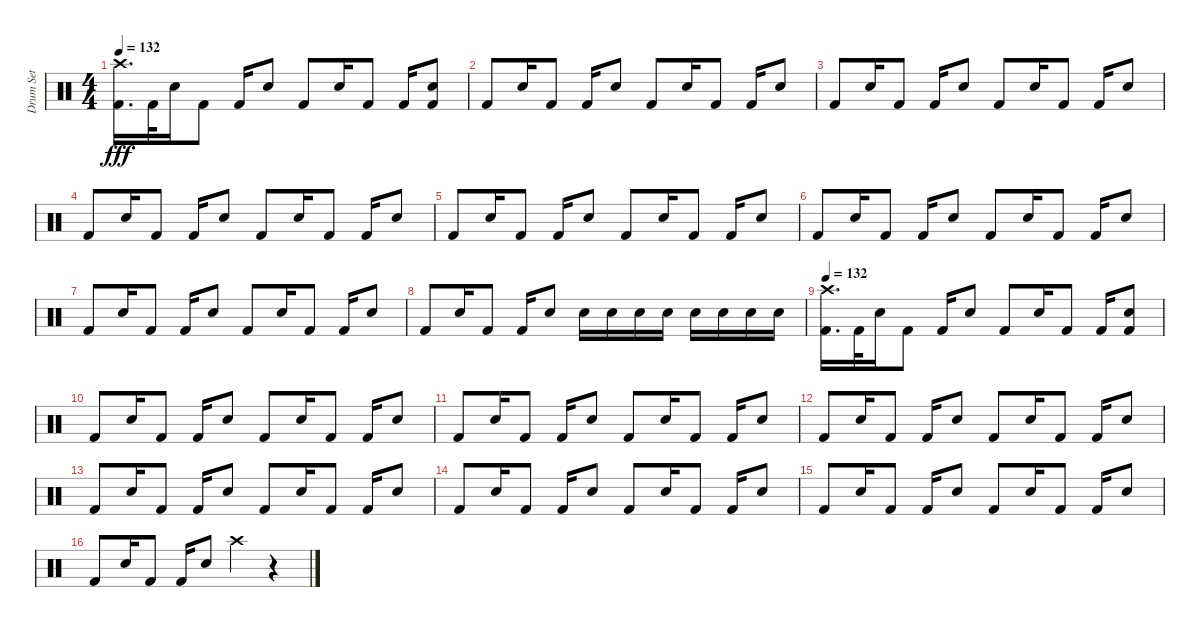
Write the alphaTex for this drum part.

\track ("Drum Set" "Drum Set") {instrument percussion}
\staff {score}
\articulation defaults
\ts (4 4)
\tempo 132
\clef neutral
\ks c
("Crash high (hit)" "Kick (hit) 2").16{d dy fff} "Kick (hit) 2".32 "Electric Snare (hit)".16 "Kick (hit) 2".8 "Kick (hit) 2".16 "Electric Snare (hit)".8 "Kick (hit) 2".8 "Electric Snare (hit)".16 "Kick (hit) 2".8 "Kick (hit) 2".16 ("Electric Snare (hit)" "Kick (hit) 2").8 |
"Kick (hit) 2".8 "Electric Snare (hit)".16 "Kick (hit) 2".8 "Kick (hit) 2".16 "Electric Snare (hit)".8 "Kick (hit) 2".8 "Electric Snare (hit)".16 "Kick (hit) 2".8 "Kick (hit) 2".16 "Electric Snare (hit)".8 |
"Kick (hit) 2".8 "Electric Snare (hit)".16 "Kick (hit) 2".8 "Kick (hit) 2".16 "Electric Snare (hit)".8 "Kick (hit) 2".8 "Electric Snare (hit)".16 "Kick (hit) 2".8 "Kick (hit) 2".16 "Electric Snare (hit)".8 |
"Kick (hit) 2".8 "Electric Snare (hit)".16 "Kick (hit) 2".8 "Kick (hit) 2".16 "Electric Snare (hit)".8 "Kick (hit) 2".8 "Electric Snare (hit)".16 "Kick (hit) 2".8 "Kick (hit) 2".16 "Electric Snare (hit)".8 |
"Kick (hit) 2".8 "Electric Snare (hit)".16 "Kick (hit) 2".8 "Kick (hit) 2".16 "Electric Snare (hit)".8 "Kick (hit) 2".8 "Electric Snare (hit)".16 "Kick (hit) 2".8 "Kick (hit) 2".16 "Electric Snare (hit)".8 |
"Kick (hit) 2".8 "Electric Snare (hit)".16 "Kick (hit) 2".8 "Kick (hit) 2".16 "Electric Snare (hit)".8 "Kick (hit) 2".8 "Electric Snare (hit)".16 "Kick (hit) 2".8 "Kick (hit) 2".16 "Electric Snare (hit)".8 |
"Kick (hit) 2".8 "Electric Snare (hit)".16 "Kick (hit) 2".8 "Kick (hit) 2".16 "Electric Snare (hit)".8 "Kick (hit) 2".8 "Electric Snare (hit)".16 "Kick (hit) 2".8 "Kick (hit) 2".16 "Electric Snare (hit)".8 |
"Kick (hit) 2".8 "Electric Snare (hit)".16 "Kick (hit) 2".8 "Kick (hit) 2".16 "Electric Snare (hit)".8 "Electric Snare (hit)".16 "Electric Snare (hit)".16 "Electric Snare (hit)".16 "Electric Snare (hit)".16 "Electric Snare (hit)".16 "Electric Snare (hit)".16 "Electric Snare (hit)".16 "Electric Snare (hit)".16 |
\tempo 132
("Crash high (hit)" "Kick (hit) 2").16{d} "Kick (hit) 2".32 "Electric Snare (hit)".16 "Kick (hit) 2".8 "Kick (hit) 2".16 "Electric Snare (hit)".8 "Kick (hit) 2".8 "Electric Snare (hit)".16 "Kick (hit) 2".8 "Kick (hit) 2".16 ("Electric Snare (hit)" "Kick (hit) 2").8 |
"Kick (hit) 2".8 "Electric Snare (hit)".16 "Kick (hit) 2".8 "Kick (hit) 2".16 "Electric Snare (hit)".8 "Kick (hit) 2".8 "Electric Snare (hit)".16 "Kick (hit) 2".8 "Kick (hit) 2".16 "Electric Snare (hit)".8 |
"Kick (hit) 2".8 "Electric Snare (hit)".16 "Kick (hit) 2".8 "Kick (hit) 2".16 "Electric Snare (hit)".8 "Kick (hit) 2".8 "Electric Snare (hit)".16 "Kick (hit) 2".8 "Kick (hit) 2".16 "Electric Snare (hit)".8 |
"Kick (hit) 2".8 "Electric Snare (hit)".16 "Kick (hit) 2".8 "Kick (hit) 2".16 "Electric Snare (hit)".8 "Kick (hit) 2".8 "Electric Snare (hit)".16 "Kick (hit) 2".8 "Kick (hit) 2".16 "Electric Snare (hit)".8 |
"Kick (hit) 2".8 "Electric Snare (hit)".16 "Kick (hit) 2".8 "Kick (hit) 2".16 "Electric Snare (hit)".8 "Kick (hit) 2".8 "Electric Snare (hit)".16 "Kick (hit) 2".8 "Kick (hit) 2".16 "Electric Snare (hit)".8 |
"Kick (hit) 2".8 "Electric Snare (hit)".16 "Kick (hit) 2".8 "Kick (hit) 2".16 "Electric Snare (hit)".8 "Kick (hit) 2".8 "Electric Snare (hit)".16 "Kick (hit) 2".8 "Kick (hit) 2".16 "Electric Snare (hit)".8 |
"Kick (hit) 2".8 "Electric Snare (hit)".16 "Kick (hit) 2".8 "Kick (hit) 2".16 "Electric Snare (hit)".8 "Kick (hit) 2".8 "Electric Snare (hit)".16 "Kick (hit) 2".8 "Kick (hit) 2".16 "Electric Snare (hit)".8 |
"Kick (hit) 2".8 "Electric Snare (hit)".16 "Kick (hit) 2".8 "Kick (hit) 2".16 "Electric Snare (hit)".8 "Crash high (hit)".4 r.4
